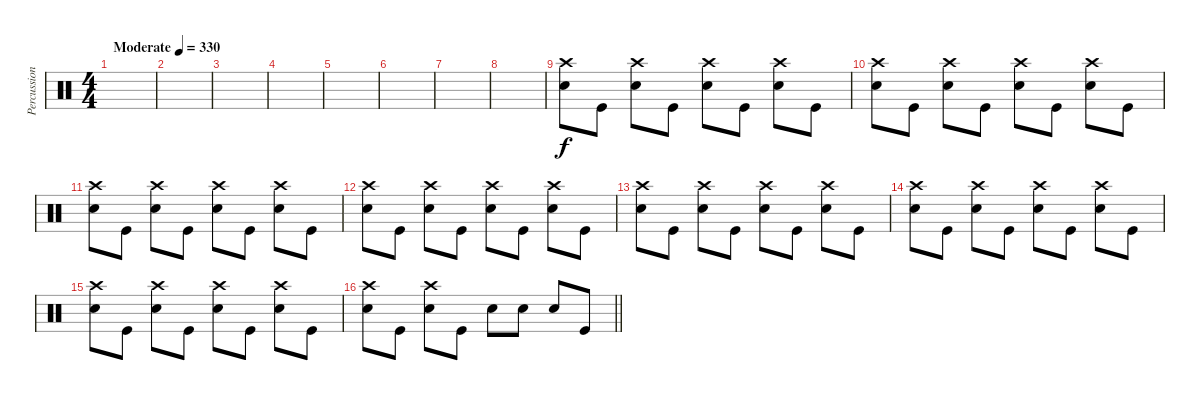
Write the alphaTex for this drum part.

\track ("Percussioni" "Percussion") {instrument percussion}
\staff {score}
\articulation defaults
\ts (4 4)
\tempo (330 "Moderate")
\clef neutral
\ks c
|
|
|
|
|
|
|
|
("Crash high (hit)" "Snare (hit) 2").8 "Kick (hit)".8 ("Crash high (hit)" "Snare (hit) 2").8 "Kick (hit)".8 ("Crash high (hit)" "Snare (hit) 2").8 "Kick (hit)".8 ("Crash high (hit)" "Snare (hit) 2").8 "Kick (hit)".8 |
("Crash high (hit)" "Snare (hit) 2").8 "Kick (hit)".8 ("Crash high (hit)" "Snare (hit) 2").8 "Kick (hit)".8 ("Crash high (hit)" "Snare (hit) 2").8 "Kick (hit)".8 ("Crash high (hit)" "Snare (hit) 2").8 "Kick (hit)".8 |
("Crash high (hit)" "Snare (hit) 2").8 "Kick (hit)".8 ("Crash high (hit)" "Snare (hit) 2").8 "Kick (hit)".8 ("Crash high (hit)" "Snare (hit) 2").8 "Kick (hit)".8 ("Crash high (hit)" "Snare (hit) 2").8 "Kick (hit)".8 |
("Crash high (hit)" "Snare (hit) 2").8 "Kick (hit)".8 ("Crash high (hit)" "Snare (hit) 2").8 "Kick (hit)".8 ("Crash high (hit)" "Snare (hit) 2").8 "Kick (hit)".8 ("Crash high (hit)" "Snare (hit) 2").8 "Kick (hit)".8 |
("Crash high (hit)" "Snare (hit) 2").8 "Kick (hit)".8 ("Crash high (hit)" "Snare (hit) 2").8 "Kick (hit)".8 ("Crash high (hit)" "Snare (hit) 2").8 "Kick (hit)".8 ("Crash high (hit)" "Snare (hit) 2").8 "Kick (hit)".8 |
("Crash high (hit)" "Snare (hit) 2").8 "Kick (hit)".8 ("Crash high (hit)" "Snare (hit) 2").8 "Kick (hit)".8 ("Crash high (hit)" "Snare (hit) 2").8 "Kick (hit)".8 ("Crash high (hit)" "Snare (hit) 2").8 "Kick (hit)".8 |
("Crash high (hit)" "Snare (hit) 2").8 "Kick (hit)".8 ("Crash high (hit)" "Snare (hit) 2").8 "Kick (hit)".8 ("Crash high (hit)" "Snare (hit) 2").8 "Kick (hit)".8 ("Crash high (hit)" "Snare (hit) 2").8 "Kick (hit)".8 |
\barLineRight lightlight
("Crash high (hit)" "Snare (hit) 2").8 "Kick (hit)".8 ("Crash high (hit)" "Snare (hit) 2").8 "Kick (hit)".8 "Snare (hit) 2".8 "Snare (hit) 2".8 "Snare (hit) 2".8 "Kick (hit)".8
